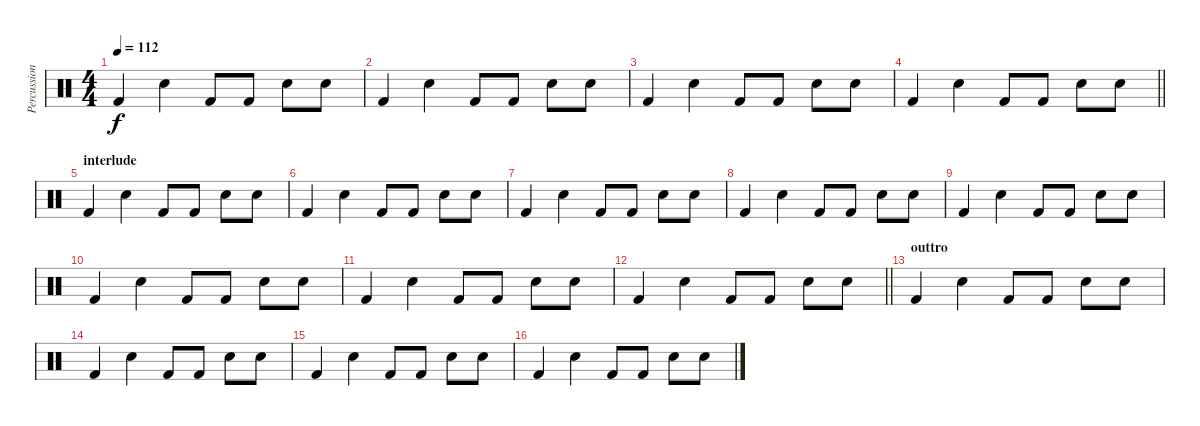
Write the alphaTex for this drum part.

\track ("Percussions" "Percussion") {instrument percussion}
\staff {score}
\articulation defaults
\ts (4 4)
\tempo 112
\clef neutral
\ks c "Kick (hit) 2".4{dy f} "Electric Snare (hit)".4 "Kick (hit) 2".8 "Kick (hit) 2".8 "Electric Snare (hit)".8 "Electric Snare (hit)".8
|
"Kick (hit) 2".4 "Electric Snare (hit)".4 "Kick (hit) 2".8 "Kick (hit) 2".8 "Electric Snare (hit)".8 "Electric Snare (hit)".8 |
"Kick (hit) 2".4 "Electric Snare (hit)".4 "Kick (hit) 2".8 "Kick (hit) 2".8 "Electric Snare (hit)".8 "Electric Snare (hit)".8 |
\barLineRight lightlight "Kick (hit) 2".4 "Electric Snare (hit)".4 "Kick (hit) 2".8 "Kick (hit) 2".8 "Electric Snare (hit)".8 "Electric Snare (hit)".8
|
\section ("" "interlude")
"Kick (hit) 2".4 "Electric Snare (hit)".4 "Kick (hit) 2".8 "Kick (hit) 2".8 "Electric Snare (hit)".8 "Electric Snare (hit)".8 |
"Kick (hit) 2".4 "Electric Snare (hit)".4 "Kick (hit) 2".8 "Kick (hit) 2".8 "Electric Snare (hit)".8 "Electric Snare (hit)".8 |
"Kick (hit) 2".4 "Electric Snare (hit)".4 "Kick (hit) 2".8 "Kick (hit) 2".8 "Electric Snare (hit)".8 "Electric Snare (hit)".8 |
"Kick (hit) 2".4 "Electric Snare (hit)".4 "Kick (hit) 2".8 "Kick (hit) 2".8 "Electric Snare (hit)".8 "Electric Snare (hit)".8 |
"Kick (hit) 2".4 "Electric Snare (hit)".4 "Kick (hit) 2".8 "Kick (hit) 2".8 "Electric Snare (hit)".8 "Electric Snare (hit)".8 |
"Kick (hit) 2".4 "Electric Snare (hit)".4 "Kick (hit) 2".8 "Kick (hit) 2".8 "Electric Snare (hit)".8 "Electric Snare (hit)".8 |
"Kick (hit) 2".4 "Electric Snare (hit)".4 "Kick (hit) 2".8 "Kick (hit) 2".8 "Electric Snare (hit)".8 "Electric Snare (hit)".8 |
\barLineRight lightlight "Kick (hit) 2".4 "Electric Snare (hit)".4 "Kick (hit) 2".8 "Kick (hit) 2".8 "Electric Snare (hit)".8 "Electric Snare (hit)".8
|
\section ("" "outtro")
"Kick (hit) 2".4 "Electric Snare (hit)".4 "Kick (hit) 2".8 "Kick (hit) 2".8 "Electric Snare (hit)".8 "Electric Snare (hit)".8 |
"Kick (hit) 2".4 "Electric Snare (hit)".4 "Kick (hit) 2".8 "Kick (hit) 2".8 "Electric Snare (hit)".8 "Electric Snare (hit)".8 |
"Kick (hit) 2".4 "Electric Snare (hit)".4 "Kick (hit) 2".8 "Kick (hit) 2".8 "Electric Snare (hit)".8 "Electric Snare (hit)".8 |
"Kick (hit) 2".4 "Electric Snare (hit)".4 "Kick (hit) 2".8 "Kick (hit) 2".8 "Electric Snare (hit)".8 "Electric Snare (hit)".8
